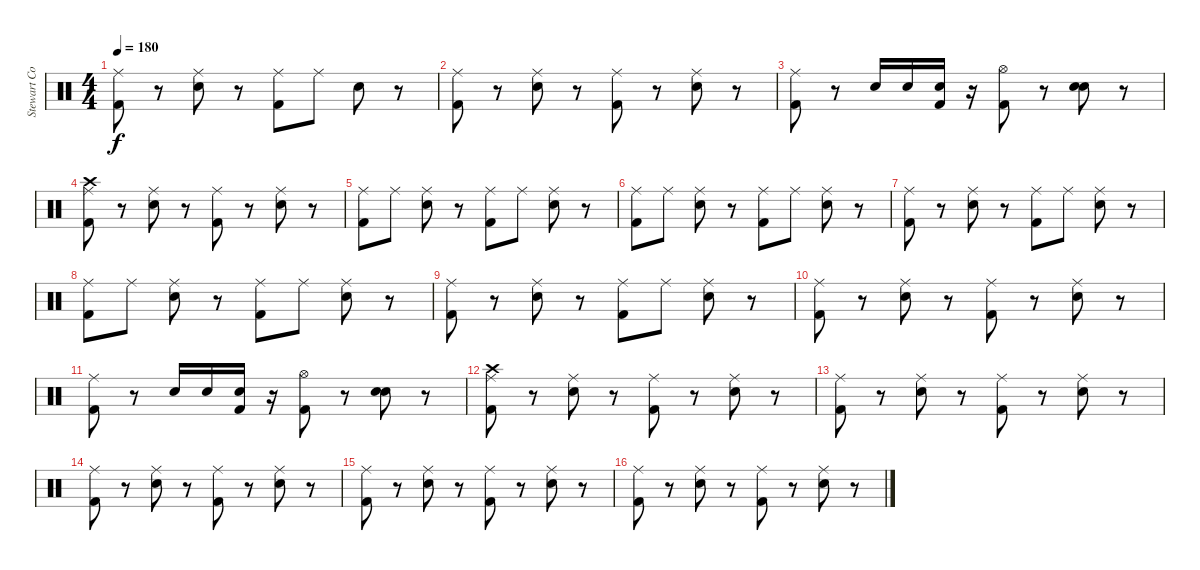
\track ("Stewart Copeland" "Stewart Co") {instrument percussion}
\staff {score}
\articulation defaults
\ts (4 4)
\tempo 180
\clef neutral
\ks c
("Ride (middle)" "Kick (hit) 2").8{dy f} r.8 ("Ride (middle)" "Electric Snare (hit)").8 r.8 ("Ride (middle)" "Kick (hit) 2").8 "Ride (middle)".8 "Electric Snare (hit)".8 r.8 |
("Ride (middle)" "Kick (hit) 2").8 r.8 ("Ride (middle)" "Electric Snare (hit)").8 r.8 ("Ride (middle)" "Kick (hit) 2").8 r.8 ("Ride (middle)" "Electric Snare (hit)").8 r.8 |
("Ride (middle)" "Kick (hit) 2").8 r.8 "Electric Snare (hit)".16 "Electric Snare (hit)".16 ("Electric Snare (hit)" "Kick (hit) 2").16 r.16 ("Hi-Hat (open)" "Kick (hit) 2").8 r.8 ("Electric Snare (hit)" "Electric Snare (hit)").8 r.8 |
("Crash high (hit)" "Ride (middle)" "Kick (hit) 2").8 r.8 ("Ride (middle)" "Electric Snare (hit)").8 r.8 ("Ride (middle)" "Kick (hit) 2").8 r.8 ("Ride (middle)" "Electric Snare (hit)").8 r.8 |
("Ride (middle)" "Kick (hit) 2").8 "Ride (middle)".8 ("Ride (middle)" "Electric Snare (hit)").8 r.8 ("Ride (middle)" "Kick (hit) 2").8 "Ride (middle)".8 ("Ride (middle)" "Electric Snare (hit)").8 r.8 |
("Ride (middle)" "Kick (hit) 2").8 "Ride (middle)".8 ("Ride (middle)" "Electric Snare (hit)").8 r.8 ("Ride (middle)" "Kick (hit) 2").8 "Ride (middle)".8 ("Ride (middle)" "Electric Snare (hit)").8 r.8 |
("Ride (middle)" "Kick (hit) 2").8 r.8 ("Ride (middle)" "Electric Snare (hit)").8 r.8 ("Ride (middle)" "Kick (hit) 2").8 "Ride (middle)".8 ("Ride (middle)" "Electric Snare (hit)").8 r.8 |
("Ride (middle)" "Kick (hit) 2").8 "Ride (middle)".8 ("Ride (middle)" "Electric Snare (hit)").8 r.8 ("Ride (middle)" "Kick (hit) 2").8 "Ride (middle)".8 ("Ride (middle)" "Electric Snare (hit)").8 r.8 |
("Ride (middle)" "Kick (hit) 2").8 r.8 ("Ride (middle)" "Electric Snare (hit)").8 r.8 ("Ride (middle)" "Kick (hit) 2").8 "Ride (middle)".8 ("Ride (middle)" "Electric Snare (hit)").8 r.8 |
("Ride (middle)" "Kick (hit) 2").8 r.8 ("Ride (middle)" "Electric Snare (hit)").8 r.8 ("Ride (middle)" "Kick (hit) 2").8 r.8 ("Ride (middle)" "Electric Snare (hit)").8 r.8 |
("Ride (middle)" "Kick (hit) 2").8 r.8 "Electric Snare (hit)".16 "Electric Snare (hit)".16 ("Electric Snare (hit)" "Kick (hit) 2").16 r.16 ("Hi-Hat (open)" "Kick (hit) 2").8 r.8 ("Electric Snare (hit)" "Electric Snare (hit)").8 r.8 |
("Crash high (hit)" "Ride (middle)" "Kick (hit) 2").8 r.8 ("Ride (middle)" "Electric Snare (hit)").8 r.8 ("Ride (middle)" "Kick (hit) 2").8 r.8 ("Ride (middle)" "Electric Snare (hit)").8 r.8 |
("Ride (middle)" "Kick (hit) 2").8 r.8 ("Ride (middle)" "Electric Snare (hit)").8 r.8 ("Ride (middle)" "Kick (hit) 2").8 r.8 ("Ride (middle)" "Electric Snare (hit)").8 r.8 |
("Ride (middle)" "Kick (hit) 2").8 r.8 ("Ride (middle)" "Electric Snare (hit)").8 r.8 ("Ride (middle)" "Kick (hit) 2").8 r.8 ("Ride (middle)" "Electric Snare (hit)").8 r.8 |
("Ride (middle)" "Kick (hit) 2").8 r.8 ("Ride (middle)" "Electric Snare (hit)").8 r.8 ("Ride (middle)" "Kick (hit) 2").8 r.8 ("Ride (middle)" "Electric Snare (hit)").8 r.8 |
("Ride (middle)" "Kick (hit) 2").8 r.8 ("Ride (middle)" "Electric Snare (hit)").8 r.8 ("Ride (middle)" "Kick (hit) 2").8 r.8 ("Ride (middle)" "Electric Snare (hit)").8 r.8
